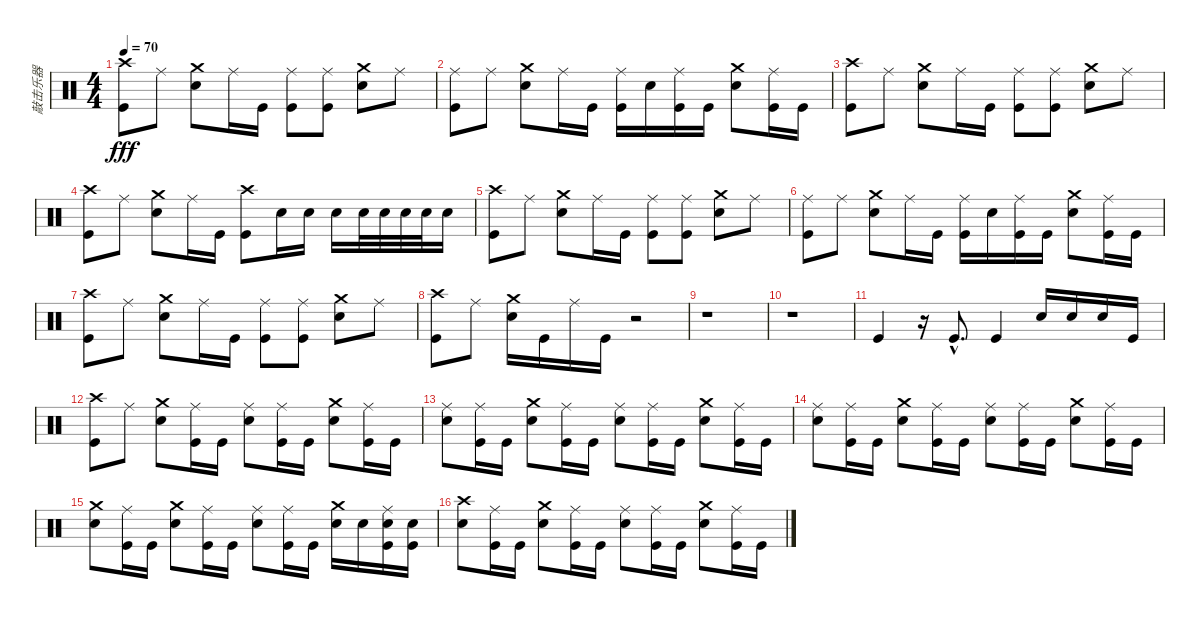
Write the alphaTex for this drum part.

\track ("敲击乐器" "敲击乐器") {instrument percussion}
\staff {score}
\articulation defaults
\ts (4 4)
\tempo 70
\clef neutral
\ks c
("Crash high (hit)" "Kick (hit)").8{dy fff} "Ride (middle)".8 ("Crash medium (hit)" "Snare (hit) 2").8 "Ride (middle)".16 "Kick (hit)".16 ("Ride (middle)" "Kick (hit)").8 ("Ride (middle)" "Kick (hit)").8 ("Crash medium (hit)" "Snare (hit) 2").8 "Ride (middle)".8 |
("Ride (middle)" "Kick (hit)").8 "Ride (middle)".8 ("Crash medium (hit)" "Snare (hit) 2").8 "Ride (middle)".16 "Kick (hit)".16 ("Ride (middle)" "Kick (hit)").16 "Snare (hit) 2".16 ("Ride (middle)" "Kick (hit)").16 "Kick (hit)".16 ("Crash medium (hit)" "Snare (hit) 2").8 ("Ride (middle)" "Kick (hit)").16 "Kick (hit)".16 |
("Crash high (hit)" "Kick (hit)").8 "Ride (middle)".8 ("Crash medium (hit)" "Snare (hit) 2").8 "Ride (middle)".16 "Kick (hit)".16 ("Ride (middle)" "Kick (hit)").8 ("Ride (middle)" "Kick (hit)").8 ("Crash medium (hit)" "Snare (hit) 2").8 "Ride (middle)".8 |
("Crash high (hit)" "Kick (hit)").8 "Ride (middle)".8 ("Crash medium (hit)" "Snare (hit) 2").8 "Ride (middle)".16 "Kick (hit)".16 ("Crash high (hit)" "Kick (hit)").8 "Snare (hit) 2".16 "Snare (hit) 2".16 "Snare (hit) 2".16 "Snare (hit) 2".32 "Snare (hit) 2".32 "Snare (hit) 2".32 "Snare (hit) 2".32 "Snare (hit) 2".16 |
("Crash high (hit)" "Kick (hit)").8 "Ride (middle)".8 ("Crash medium (hit)" "Snare (hit) 2").8 "Ride (middle)".16 "Kick (hit)".16 ("Ride (middle)" "Kick (hit)").8 ("Ride (middle)" "Kick (hit)").8 ("Crash medium (hit)" "Snare (hit) 2").8 "Ride (middle)".8 |
("Ride (middle)" "Kick (hit)").8 "Ride (middle)".8 ("Crash medium (hit)" "Snare (hit) 2").8 "Ride (middle)".16 "Kick (hit)".16 ("Ride (middle)" "Kick (hit)").16 "Snare (hit) 2".16 ("Ride (middle)" "Kick (hit)").16 "Kick (hit)".16 ("Crash medium (hit)" "Snare (hit) 2").8 ("Ride (middle)" "Kick (hit)").16 "Kick (hit)".16 |
("Crash high (hit)" "Kick (hit)").8 "Ride (middle)".8 ("Crash medium (hit)" "Snare (hit) 2").8 "Ride (middle)".16 "Kick (hit)".16 ("Ride (middle)" "Kick (hit)").8 ("Ride (middle)" "Kick (hit)").8 ("Crash medium (hit)" "Snare (hit) 2").8 "Ride (middle)".8 |
("Crash high (hit)" "Kick (hit)").8 "Ride (middle)".8 ("Crash medium (hit)" "Snare (hit) 2").16 "Kick (hit)".16 "Ride (middle)".16 "Kick (hit)".16 r.2 |
r.1 |
r.1 |
"Kick (hit)".4 r.16 "Kick (hit)"{hac}.8{d} "Kick (hit)".4 "Snare (hit) 2".16 "Snare (hit) 2".16 "Snare (hit) 2".16 "Kick (hit)".16 |
("Crash high (hit)" "Kick (hit)").8 "Ride (middle)".8 ("Crash medium (hit)" "Snare (hit) 2").8 ("Ride (middle)" "Kick (hit)").16 "Kick (hit)".16 ("Ride (middle)" "Snare (hit) 2").8 ("Ride (middle)" "Kick (hit)").16 "Kick (hit)".16 ("Crash medium (hit)" "Snare (hit) 2").8 ("Ride (middle)" "Kick (hit)").16 "Kick (hit)".16 |
("Ride (middle)" "Snare (hit) 2").8 ("Ride (middle)" "Kick (hit)").16 "Kick (hit)".16 ("Crash medium (hit)" "Snare (hit) 2").8 ("Ride (middle)" "Kick (hit)").16 "Kick (hit)".16 ("Ride (middle)" "Snare (hit) 2").8 ("Ride (middle)" "Kick (hit)").16 "Kick (hit)".16 ("Crash medium (hit)" "Snare (hit) 2").8 ("Ride (middle)" "Kick (hit)").16 "Kick (hit)".16 |
("Ride (middle)" "Snare (hit) 2").8 ("Ride (middle)" "Kick (hit)").16 "Kick (hit)".16 ("Crash medium (hit)" "Snare (hit) 2").8 ("Ride (middle)" "Kick (hit)").16 "Kick (hit)".16 ("Ride (middle)" "Snare (hit) 2").8 ("Ride (middle)" "Kick (hit)").16 "Kick (hit)".16 ("Crash medium (hit)" "Snare (hit) 2").8 ("Ride (middle)" "Kick (hit)").16 "Kick (hit)".16 |
("Crash medium (hit)" "Snare (hit) 2").8 ("Ride (middle)" "Kick (hit)").16 "Kick (hit)".16 ("Crash medium (hit)" "Snare (hit) 2").8 ("Ride (middle)" "Kick (hit)").16 "Kick (hit)".16 ("Ride (middle)" "Snare (hit) 2").8 ("Ride (middle)" "Kick (hit)").16 "Kick (hit)".16 ("Crash medium (hit)" "Snare (hit) 2").16 "Snare (hit) 2".16 ("Ride (middle)" "Snare (hit) 2" "Kick (hit)").16 ("Snare (hit) 2" "Kick (hit)").16 |
("Crash high (hit)" "Snare (hit) 2").8 ("Ride (middle)" "Kick (hit)").16 "Kick (hit)".16 ("Crash medium (hit)" "Snare (hit) 2").8 ("Ride (middle)" "Kick (hit)").16 "Kick (hit)".16 ("Ride (middle)" "Snare (hit) 2").8 ("Ride (middle)" "Kick (hit)").16 "Kick (hit)".16 ("Crash medium (hit)" "Snare (hit) 2").8 ("Ride (middle)" "Kick (hit)").16 "Kick (hit)".16
